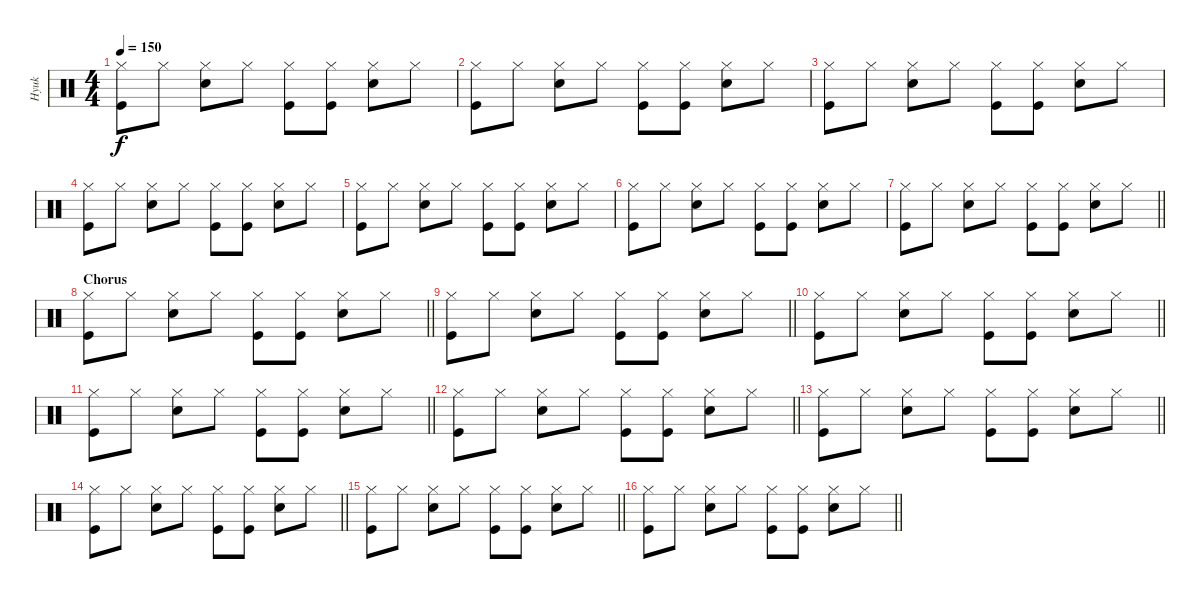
\track ("Hyuk" "Hyuk") {instrument percussion}
\staff {score}
\articulation defaults
\ts (4 4)
\tempo 150
\clef neutral
\ks c
("Hi-Hat (closed)" "Kick (hit)").8{dy f} "Hi-Hat (closed)".8 ("Hi-Hat (closed)" "Snare (hit) 2").8 "Hi-Hat (closed)".8 ("Hi-Hat (closed)" "Kick (hit)").8 ("Hi-Hat (closed)" "Kick (hit)").8 ("Hi-Hat (closed)" "Snare (hit) 2").8 "Hi-Hat (closed)".8 |
("Hi-Hat (closed)" "Kick (hit)").8 "Hi-Hat (closed)".8 ("Hi-Hat (closed)" "Snare (hit) 2").8 "Hi-Hat (closed)".8 ("Hi-Hat (closed)" "Kick (hit)").8 ("Hi-Hat (closed)" "Kick (hit)").8 ("Hi-Hat (closed)" "Snare (hit) 2").8 "Hi-Hat (closed)".8 |
("Hi-Hat (closed)" "Kick (hit)").8 "Hi-Hat (closed)".8 ("Hi-Hat (closed)" "Snare (hit) 2").8 "Hi-Hat (closed)".8 ("Hi-Hat (closed)" "Kick (hit)").8 ("Hi-Hat (closed)" "Kick (hit)").8 ("Hi-Hat (closed)" "Snare (hit) 2").8 "Hi-Hat (closed)".8 |
("Hi-Hat (closed)" "Kick (hit)").8 "Hi-Hat (closed)".8 ("Hi-Hat (closed)" "Snare (hit) 2").8 "Hi-Hat (closed)".8 ("Hi-Hat (closed)" "Kick (hit)").8 ("Hi-Hat (closed)" "Kick (hit)").8 ("Hi-Hat (closed)" "Snare (hit) 2").8 "Hi-Hat (closed)".8 |
("Hi-Hat (closed)" "Kick (hit)").8 "Hi-Hat (closed)".8 ("Hi-Hat (closed)" "Snare (hit) 2").8 "Hi-Hat (closed)".8 ("Hi-Hat (closed)" "Kick (hit)").8 ("Hi-Hat (closed)" "Kick (hit)").8 ("Hi-Hat (closed)" "Snare (hit) 2").8 "Hi-Hat (closed)".8 |
("Hi-Hat (closed)" "Kick (hit)").8 "Hi-Hat (closed)".8 ("Hi-Hat (closed)" "Snare (hit) 2").8 "Hi-Hat (closed)".8 ("Hi-Hat (closed)" "Kick (hit)").8 ("Hi-Hat (closed)" "Kick (hit)").8 ("Hi-Hat (closed)" "Snare (hit) 2").8 "Hi-Hat (closed)".8 |
\barLineRight lightlight
("Hi-Hat (closed)" "Kick (hit)").8 "Hi-Hat (closed)".8 ("Hi-Hat (closed)" "Snare (hit) 2").8 "Hi-Hat (closed)".8 ("Hi-Hat (closed)" "Kick (hit)").8 ("Hi-Hat (closed)" "Kick (hit)").8 ("Hi-Hat (closed)" "Snare (hit) 2").8 "Hi-Hat (closed)".8 |
\section ("" "Chorus")
\barLineRight lightlight
("Hi-Hat (closed)" "Kick (hit)").8 "Hi-Hat (closed)".8 ("Hi-Hat (closed)" "Snare (hit) 2").8 "Hi-Hat (closed)".8 ("Hi-Hat (closed)" "Kick (hit)").8 ("Hi-Hat (closed)" "Kick (hit)").8 ("Hi-Hat (closed)" "Snare (hit) 2").8 "Hi-Hat (closed)".8 |
\barLineRight lightlight
("Hi-Hat (closed)" "Kick (hit)").8 "Hi-Hat (closed)".8 ("Hi-Hat (closed)" "Snare (hit) 2").8 "Hi-Hat (closed)".8 ("Hi-Hat (closed)" "Kick (hit)").8 ("Hi-Hat (closed)" "Kick (hit)").8 ("Hi-Hat (closed)" "Snare (hit) 2").8 "Hi-Hat (closed)".8 |
\barLineRight lightlight
("Hi-Hat (closed)" "Kick (hit)").8 "Hi-Hat (closed)".8 ("Hi-Hat (closed)" "Snare (hit) 2").8 "Hi-Hat (closed)".8 ("Hi-Hat (closed)" "Kick (hit)").8 ("Hi-Hat (closed)" "Kick (hit)").8 ("Hi-Hat (closed)" "Snare (hit) 2").8 "Hi-Hat (closed)".8 |
\barLineRight lightlight
("Hi-Hat (closed)" "Kick (hit)").8 "Hi-Hat (closed)".8 ("Hi-Hat (closed)" "Snare (hit) 2").8 "Hi-Hat (closed)".8 ("Hi-Hat (closed)" "Kick (hit)").8 ("Hi-Hat (closed)" "Kick (hit)").8 ("Hi-Hat (closed)" "Snare (hit) 2").8 "Hi-Hat (closed)".8 |
\barLineRight lightlight
("Hi-Hat (closed)" "Kick (hit)").8 "Hi-Hat (closed)".8 ("Hi-Hat (closed)" "Snare (hit) 2").8 "Hi-Hat (closed)".8 ("Hi-Hat (closed)" "Kick (hit)").8 ("Hi-Hat (closed)" "Kick (hit)").8 ("Hi-Hat (closed)" "Snare (hit) 2").8 "Hi-Hat (closed)".8 |
\barLineRight lightlight
("Hi-Hat (closed)" "Kick (hit)").8 "Hi-Hat (closed)".8 ("Hi-Hat (closed)" "Snare (hit) 2").8 "Hi-Hat (closed)".8 ("Hi-Hat (closed)" "Kick (hit)").8 ("Hi-Hat (closed)" "Kick (hit)").8 ("Hi-Hat (closed)" "Snare (hit) 2").8 "Hi-Hat (closed)".8 |
\barLineRight lightlight
("Hi-Hat (closed)" "Kick (hit)").8 "Hi-Hat (closed)".8 ("Hi-Hat (closed)" "Snare (hit) 2").8 "Hi-Hat (closed)".8 ("Hi-Hat (closed)" "Kick (hit)").8 ("Hi-Hat (closed)" "Kick (hit)").8 ("Hi-Hat (closed)" "Snare (hit) 2").8 "Hi-Hat (closed)".8 |
\barLineRight lightlight
("Hi-Hat (closed)" "Kick (hit)").8 "Hi-Hat (closed)".8 ("Hi-Hat (closed)" "Snare (hit) 2").8 "Hi-Hat (closed)".8 ("Hi-Hat (closed)" "Kick (hit)").8 ("Hi-Hat (closed)" "Kick (hit)").8 ("Hi-Hat (closed)" "Snare (hit) 2").8 "Hi-Hat (closed)".8 |
\barLineRight lightlight
("Hi-Hat (closed)" "Kick (hit)").8 "Hi-Hat (closed)".8 ("Hi-Hat (closed)" "Snare (hit) 2").8 "Hi-Hat (closed)".8 ("Hi-Hat (closed)" "Kick (hit)").8 ("Hi-Hat (closed)" "Kick (hit)").8 ("Hi-Hat (closed)" "Snare (hit) 2").8 "Hi-Hat (closed)".8
